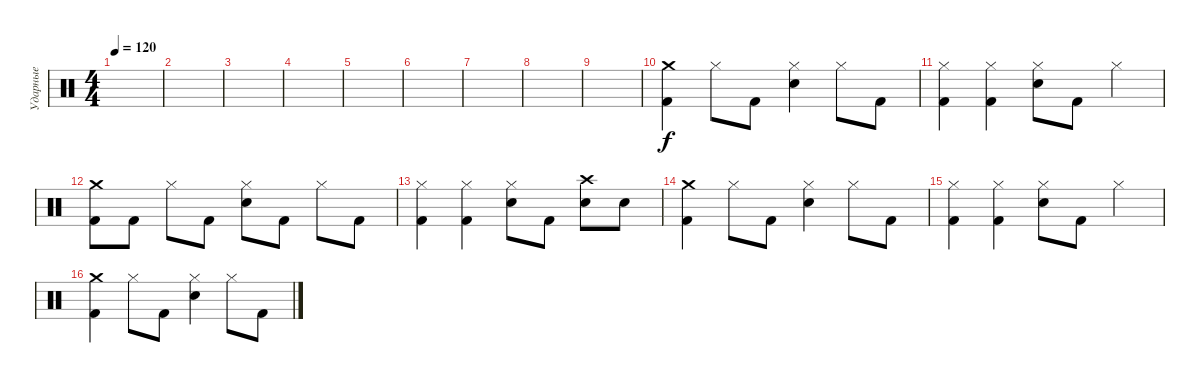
\track ("Ударные" "Ударные") {instrument percussion}
\staff {score}
\articulation defaults
\ts (4 4)
\tempo 120
\clef neutral
\ks c
|
|
|
|
|
|
|
|
|
("Crash medium (hit)" "Kick (hit) 2").4 "Hi-Hat (closed)".8 "Kick (hit) 2".8 ("Hi-Hat (closed)" "Snare (hit) 2").4 "Hi-Hat (closed)".8 "Kick (hit) 2".8 |
("Hi-Hat (closed)" "Kick (hit) 2").4 ("Hi-Hat (closed)" "Kick (hit) 2").4 ("Hi-Hat (closed)" "Snare (hit) 2").8 "Kick (hit) 2".8 "Hi-Hat (closed)".4 |
("Crash medium (hit)" "Kick (hit) 2").8 "Kick (hit) 2".8 "Hi-Hat (closed)".8 "Kick (hit) 2".8 ("Hi-Hat (closed)" "Snare (hit) 2").8 "Kick (hit) 2".8 "Hi-Hat (closed)".8 "Kick (hit) 2".8 |
("Hi-Hat (closed)" "Kick (hit) 2").4 ("Hi-Hat (closed)" "Kick (hit) 2").4 ("Hi-Hat (closed)" "Snare (hit) 2").8 "Kick (hit) 2".8 ("Crash high (hit)" "Snare (hit) 2").8 "Snare (hit) 2".8 |
("Crash medium (hit)" "Kick (hit) 2").4 "Hi-Hat (closed)".8 "Kick (hit) 2".8 ("Hi-Hat (closed)" "Snare (hit) 2").4 "Hi-Hat (closed)".8 "Kick (hit) 2".8 |
("Hi-Hat (closed)" "Kick (hit) 2").4 ("Hi-Hat (closed)" "Kick (hit) 2").4 ("Hi-Hat (closed)" "Snare (hit) 2").8 "Kick (hit) 2".8 "Hi-Hat (closed)".4 |
("Crash medium (hit)" "Kick (hit) 2").4 "Hi-Hat (closed)".8 "Kick (hit) 2".8 ("Hi-Hat (closed)" "Snare (hit) 2").4 "Hi-Hat (closed)".8 "Kick (hit) 2".8
